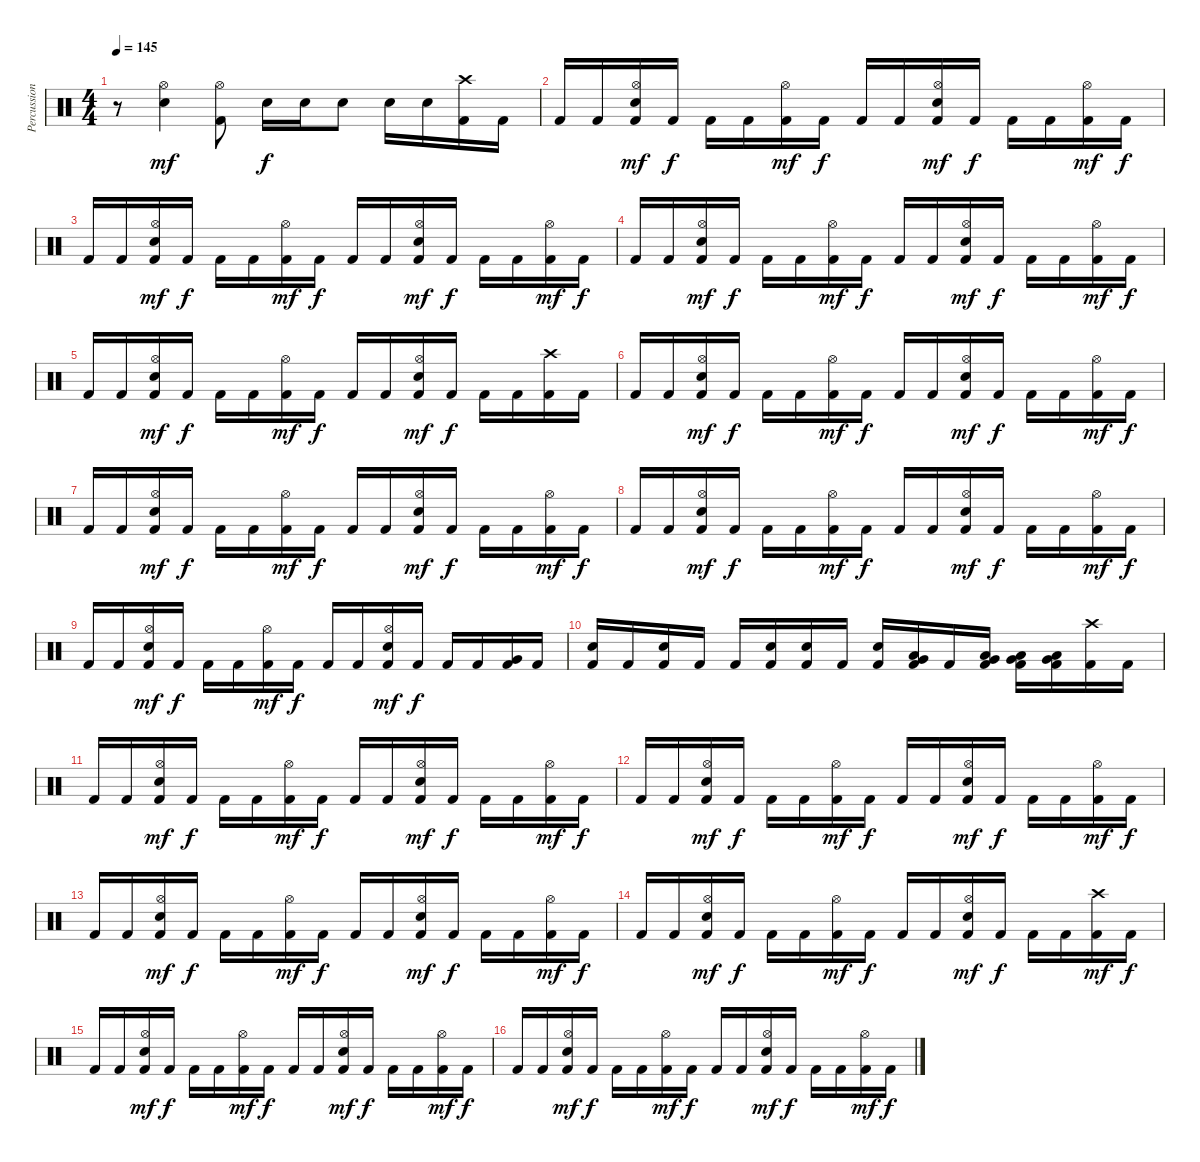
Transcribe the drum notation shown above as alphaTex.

\track ("Percussioni" "Percussion") {instrument percussion}
\staff {score}
\articulation defaults
\ts (4 4)
\tempo 145
\clef neutral
\ks c
r.8{dy mf} ("Snare (hit) 2" "Hi-Hat (open)").4 ("Kick (hit) 2" "Hi-Hat (open)").8 "Snare (hit) 2".16{dy f} "Snare (hit) 2".16 "Snare (hit) 2".8 "Snare (hit) 2".16 "Snare (hit) 2".16 ("Kick (hit) 2" "Crash high (hit)").16 "Kick (hit) 2".16 |
"Kick (hit) 2".16 "Kick (hit) 2".16 ("Kick (hit) 2" "Snare (hit) 2" "Hi-Hat (open)").16{dy mf} "Kick (hit) 2".16{dy f} "Kick (hit) 2".16 "Kick (hit) 2".16 ("Kick (hit) 2" "Hi-Hat (open)").16{dy mf} "Kick (hit) 2".16{dy f} "Kick (hit) 2".16 "Kick (hit) 2".16 ("Kick (hit) 2" "Snare (hit) 2" "Hi-Hat (open)").16{dy mf} "Kick (hit) 2".16{dy f} "Kick (hit) 2".16 "Kick (hit) 2".16 ("Kick (hit) 2" "Hi-Hat (open)").16{dy mf} "Kick (hit) 2".16{dy f} |
"Kick (hit) 2".16 "Kick (hit) 2".16 ("Kick (hit) 2" "Snare (hit) 2" "Hi-Hat (open)").16{dy mf} "Kick (hit) 2".16{dy f} "Kick (hit) 2".16 "Kick (hit) 2".16 ("Kick (hit) 2" "Hi-Hat (open)").16{dy mf} "Kick (hit) 2".16{dy f} "Kick (hit) 2".16 "Kick (hit) 2".16 ("Kick (hit) 2" "Snare (hit) 2" "Hi-Hat (open)").16{dy mf} "Kick (hit) 2".16{dy f} "Kick (hit) 2".16 "Kick (hit) 2".16 ("Kick (hit) 2" "Hi-Hat (open)").16{dy mf} "Kick (hit) 2".16{dy f} |
"Kick (hit) 2".16 "Kick (hit) 2".16 ("Kick (hit) 2" "Snare (hit) 2" "Hi-Hat (open)").16{dy mf} "Kick (hit) 2".16{dy f} "Kick (hit) 2".16 "Kick (hit) 2".16 ("Kick (hit) 2" "Hi-Hat (open)").16{dy mf} "Kick (hit) 2".16{dy f} "Kick (hit) 2".16 "Kick (hit) 2".16 ("Kick (hit) 2" "Snare (hit) 2" "Hi-Hat (open)").16{dy mf} "Kick (hit) 2".16{dy f} "Kick (hit) 2".16 "Kick (hit) 2".16 ("Kick (hit) 2" "Hi-Hat (open)").16{dy mf} "Kick (hit) 2".16{dy f} |
"Kick (hit) 2".16 "Kick (hit) 2".16 ("Kick (hit) 2" "Snare (hit) 2" "Hi-Hat (open)").16{dy mf} "Kick (hit) 2".16{dy f} "Kick (hit) 2".16 "Kick (hit) 2".16 ("Kick (hit) 2" "Hi-Hat (open)").16{dy mf} "Kick (hit) 2".16{dy f} "Kick (hit) 2".16 "Kick (hit) 2".16 ("Kick (hit) 2" "Snare (hit) 2" "Hi-Hat (open)").16{dy mf} "Kick (hit) 2".16{dy f} "Kick (hit) 2".16 "Kick (hit) 2".16 ("Kick (hit) 2" "Crash high (hit)").16 "Kick (hit) 2".16 |
"Kick (hit) 2".16 "Kick (hit) 2".16 ("Kick (hit) 2" "Snare (hit) 2" "Hi-Hat (open)").16{dy mf} "Kick (hit) 2".16{dy f} "Kick (hit) 2".16 "Kick (hit) 2".16 ("Kick (hit) 2" "Hi-Hat (open)").16{dy mf} "Kick (hit) 2".16{dy f} "Kick (hit) 2".16 "Kick (hit) 2".16 ("Kick (hit) 2" "Snare (hit) 2" "Hi-Hat (open)").16{dy mf} "Kick (hit) 2".16{dy f} "Kick (hit) 2".16 "Kick (hit) 2".16 ("Kick (hit) 2" "Hi-Hat (open)").16{dy mf} "Kick (hit) 2".16{dy f} |
"Kick (hit) 2".16 "Kick (hit) 2".16 ("Kick (hit) 2" "Snare (hit) 2" "Hi-Hat (open)").16{dy mf} "Kick (hit) 2".16{dy f} "Kick (hit) 2".16 "Kick (hit) 2".16 ("Kick (hit) 2" "Hi-Hat (open)").16{dy mf} "Kick (hit) 2".16{dy f} "Kick (hit) 2".16 "Kick (hit) 2".16 ("Kick (hit) 2" "Snare (hit) 2" "Hi-Hat (open)").16{dy mf} "Kick (hit) 2".16{dy f} "Kick (hit) 2".16 "Kick (hit) 2".16 ("Kick (hit) 2" "Hi-Hat (open)").16{dy mf} "Kick (hit) 2".16{dy f} |
"Kick (hit) 2".16 "Kick (hit) 2".16 ("Kick (hit) 2" "Snare (hit) 2" "Hi-Hat (open)").16{dy mf} "Kick (hit) 2".16{dy f} "Kick (hit) 2".16 "Kick (hit) 2".16 ("Kick (hit) 2" "Hi-Hat (open)").16{dy mf} "Kick (hit) 2".16{dy f} "Kick (hit) 2".16 "Kick (hit) 2".16 ("Kick (hit) 2" "Snare (hit) 2" "Hi-Hat (open)").16{dy mf} "Kick (hit) 2".16{dy f} "Kick (hit) 2".16 "Kick (hit) 2".16 ("Kick (hit) 2" "Hi-Hat (open)").16{dy mf} "Kick (hit) 2".16{dy f} |
"Kick (hit) 2".16 "Kick (hit) 2".16 ("Kick (hit) 2" "Snare (hit) 2" "Hi-Hat (open)").16{dy mf} "Kick (hit) 2".16{dy f} "Kick (hit) 2".16 "Kick (hit) 2".16 ("Kick (hit) 2" "Hi-Hat (open)").16{dy mf} "Kick (hit) 2".16{dy f} "Kick (hit) 2".16 "Kick (hit) 2".16 ("Kick (hit) 2" "Snare (hit) 2" "Hi-Hat (open)").16{dy mf} "Kick (hit) 2".16{dy f} "Kick (hit) 2".16 "Kick (hit) 2".16 ("Kick (hit) 2" "Very Low Tom (hit)").16 "Kick (hit) 2".16 |
("Kick (hit) 2" "Snare (hit) 2").16 "Kick (hit) 2".16 ("Kick (hit) 2" "Snare (hit) 2").16 "Kick (hit) 2".16 "Kick (hit) 2".16 ("Kick (hit) 2" "Snare (hit) 2").16 ("Kick (hit) 2" "Snare (hit) 2").16 "Kick (hit) 2".16 ("Kick (hit) 2" "Snare (hit) 2").16 ("Kick (hit) 2" "Very Low Tom (hit)" "Low Tom (hit)").16 "Kick (hit) 2".16 ("Kick (hit) 2" "Very Low Tom (hit)" "Low Tom (hit)").16 ("Kick (hit) 2" "Very Low Tom (hit)" "Low Tom (hit)").16 ("Kick (hit) 2" "Very Low Tom (hit)" "Low Tom (hit)").16 ("Kick (hit) 2" "Crash high (hit)").16 "Kick (hit) 2".16 |
"Kick (hit) 2".16 "Kick (hit) 2".16 ("Kick (hit) 2" "Snare (hit) 2" "Hi-Hat (open)").16{dy mf} "Kick (hit) 2".16{dy f} "Kick (hit) 2".16 "Kick (hit) 2".16 ("Kick (hit) 2" "Hi-Hat (open)").16{dy mf} "Kick (hit) 2".16{dy f} "Kick (hit) 2".16 "Kick (hit) 2".16 ("Kick (hit) 2" "Snare (hit) 2" "Hi-Hat (open)").16{dy mf} "Kick (hit) 2".16{dy f} "Kick (hit) 2".16 "Kick (hit) 2".16 ("Kick (hit) 2" "Hi-Hat (open)").16{dy mf} "Kick (hit) 2".16{dy f} |
"Kick (hit) 2".16 "Kick (hit) 2".16 ("Kick (hit) 2" "Snare (hit) 2" "Hi-Hat (open)").16{dy mf} "Kick (hit) 2".16{dy f} "Kick (hit) 2".16 "Kick (hit) 2".16 ("Kick (hit) 2" "Hi-Hat (open)").16{dy mf} "Kick (hit) 2".16{dy f} "Kick (hit) 2".16 "Kick (hit) 2".16 ("Kick (hit) 2" "Snare (hit) 2" "Hi-Hat (open)").16{dy mf} "Kick (hit) 2".16{dy f} "Kick (hit) 2".16 "Kick (hit) 2".16 ("Kick (hit) 2" "Hi-Hat (open)").16{dy mf} "Kick (hit) 2".16{dy f} |
"Kick (hit) 2".16 "Kick (hit) 2".16 ("Kick (hit) 2" "Snare (hit) 2" "Hi-Hat (open)").16{dy mf} "Kick (hit) 2".16{dy f} "Kick (hit) 2".16 "Kick (hit) 2".16 ("Kick (hit) 2" "Hi-Hat (open)").16{dy mf} "Kick (hit) 2".16{dy f} "Kick (hit) 2".16 "Kick (hit) 2".16 ("Kick (hit) 2" "Snare (hit) 2" "Hi-Hat (open)").16{dy mf} "Kick (hit) 2".16{dy f} "Kick (hit) 2".16 "Kick (hit) 2".16 ("Kick (hit) 2" "Hi-Hat (open)").16{dy mf} "Kick (hit) 2".16{dy f} |
"Kick (hit) 2".16 "Kick (hit) 2".16 ("Kick (hit) 2" "Snare (hit) 2" "Hi-Hat (open)").16{dy mf} "Kick (hit) 2".16{dy f} "Kick (hit) 2".16 "Kick (hit) 2".16 ("Kick (hit) 2" "Hi-Hat (open)").16{dy mf} "Kick (hit) 2".16{dy f} "Kick (hit) 2".16 "Kick (hit) 2".16 ("Kick (hit) 2" "Snare (hit) 2" "Hi-Hat (open)").16{dy mf} "Kick (hit) 2".16{dy f} "Kick (hit) 2".16 "Kick (hit) 2".16 ("Kick (hit) 2" "Crash high (hit)").16{dy mf} "Kick (hit) 2".16{dy f} |
"Kick (hit) 2".16 "Kick (hit) 2".16 ("Kick (hit) 2" "Snare (hit) 2" "Hi-Hat (open)").16{dy mf} "Kick (hit) 2".16{dy f} "Kick (hit) 2".16 "Kick (hit) 2".16 ("Kick (hit) 2" "Hi-Hat (open)").16{dy mf} "Kick (hit) 2".16{dy f} "Kick (hit) 2".16 "Kick (hit) 2".16 ("Kick (hit) 2" "Snare (hit) 2" "Hi-Hat (open)").16{dy mf} "Kick (hit) 2".16{dy f} "Kick (hit) 2".16 "Kick (hit) 2".16 ("Kick (hit) 2" "Hi-Hat (open)").16{dy mf} "Kick (hit) 2".16{dy f} |
"Kick (hit) 2".16 "Kick (hit) 2".16 ("Kick (hit) 2" "Snare (hit) 2" "Hi-Hat (open)").16{dy mf} "Kick (hit) 2".16{dy f} "Kick (hit) 2".16 "Kick (hit) 2".16 ("Kick (hit) 2" "Hi-Hat (open)").16{dy mf} "Kick (hit) 2".16{dy f} "Kick (hit) 2".16 "Kick (hit) 2".16 ("Kick (hit) 2" "Snare (hit) 2" "Hi-Hat (open)").16{dy mf} "Kick (hit) 2".16{dy f} "Kick (hit) 2".16 "Kick (hit) 2".16 ("Kick (hit) 2" "Hi-Hat (open)").16{dy mf} "Kick (hit) 2".16{dy f}
